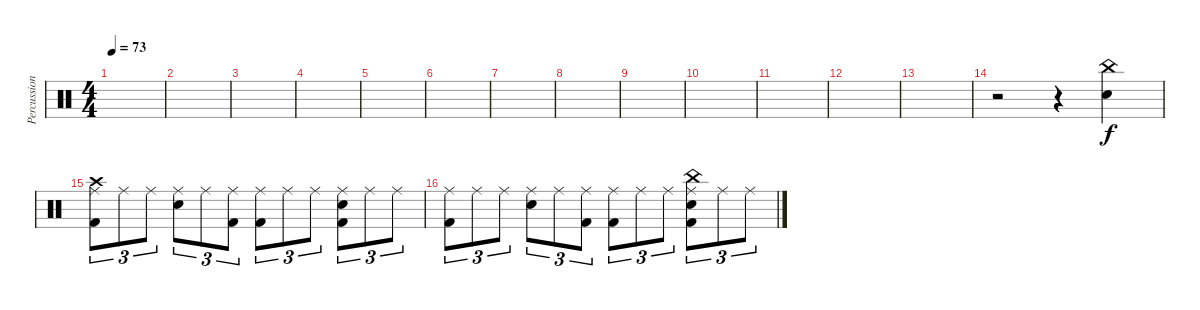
\track ("Percussion" "Percussion") {instrument percussion}
\staff {score}
\articulation defaults
\ts (4 4)
\tempo 73
\clef neutral
\ks c
|
|
|
|
|
|
|
|
|
|
|
|
|
r.2 r.4 ("China (hit)" "Snare (hit) 2").4 |
("Ride (middle)" "Crash high (hit)" "Kick (hit) 2").8{tu (3 2)} "Ride (middle)".8{tu (3 2)} "Ride (middle)".8{tu (3 2)} ("Ride (middle)" "Snare (hit) 2").8{tu (3 2)} "Ride (middle)".8{tu (3 2)} ("Ride (middle)" "Kick (hit) 2").8{tu (3 2)} ("Ride (middle)" "Kick (hit) 2").8{tu (3 2)} "Ride (middle)".8{tu (3 2)} "Ride (middle)".8{tu (3 2)} ("Ride (middle)" "Snare (hit) 2" "Kick (hit) 2").8{tu (3 2)} "Ride (middle)".8{tu (3 2)} "Ride (middle)".8{tu (3 2)} |
("Ride (middle)" "Kick (hit) 2").8{tu (3 2)} "Ride (middle)".8{tu (3 2)} "Ride (middle)".8{tu (3 2)} ("Ride (middle)" "Snare (hit) 2").8{tu (3 2)} "Ride (middle)".8{tu (3 2)} ("Ride (middle)" "Kick (hit) 2").8{tu (3 2)} ("Ride (middle)" "Kick (hit) 2").8{tu (3 2)} "Ride (middle)".8{tu (3 2)} "Ride (middle)".8{tu (3 2)} ("Ride (middle)" "China (hit)" "Snare (hit) 2" "Kick (hit) 2").8{tu (3 2)} "Ride (middle)".8{tu (3 2)} "Ride (middle)".8{tu (3 2)}
